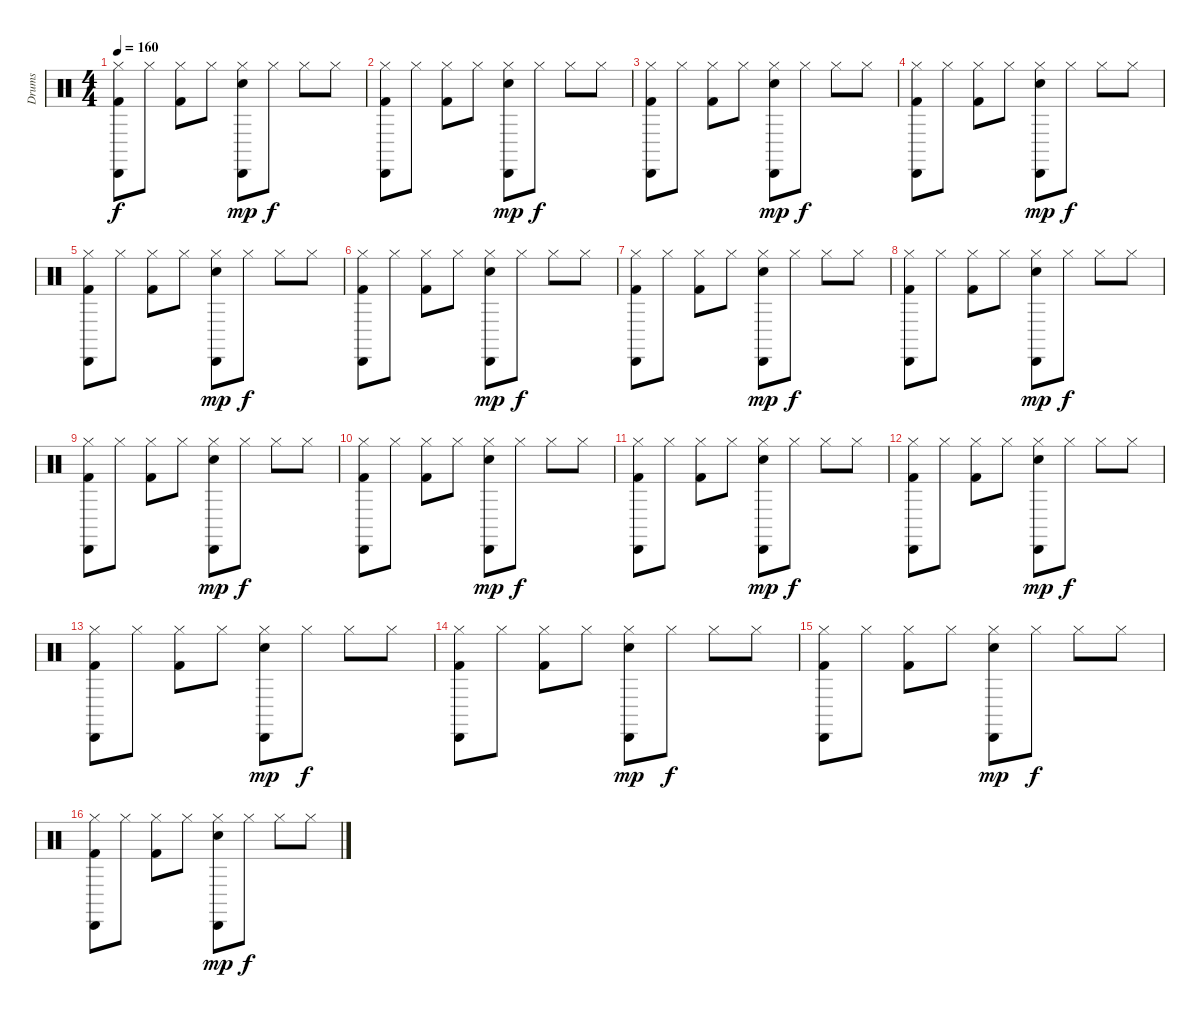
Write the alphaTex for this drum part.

\track ("Drums" "Drums") {instrument percussion}
\staff {score}
\articulation defaults
\ts (4 4)
\tempo 160
\clef neutral
\ks c
("Hi-Hat (closed)" "Cabasa (hit)" "Kick (hit) 2").8{dy f} "Hi-Hat (closed)".8 ("Hi-Hat (closed)" "Kick (hit) 2").8 "Hi-Hat (closed)".8 ("Hi-Hat (closed)" "Cabasa (hit)" "Electric Snare (hit)").8{dy mp} "Hi-Hat (closed)".8{dy f} "Hi-Hat (closed)".8 "Hi-Hat (closed)".8 |
("Hi-Hat (closed)" "Cabasa (hit)" "Kick (hit) 2").8 "Hi-Hat (closed)".8 ("Hi-Hat (closed)" "Kick (hit) 2").8 "Hi-Hat (closed)".8 ("Hi-Hat (closed)" "Cabasa (hit)" "Electric Snare (hit)").8{dy mp} "Hi-Hat (closed)".8{dy f} "Hi-Hat (closed)".8 "Hi-Hat (closed)".8 |
("Hi-Hat (closed)" "Cabasa (hit)" "Kick (hit) 2").8 "Hi-Hat (closed)".8 ("Hi-Hat (closed)" "Kick (hit) 2").8 "Hi-Hat (closed)".8 ("Hi-Hat (closed)" "Cabasa (hit)" "Electric Snare (hit)").8{dy mp} "Hi-Hat (closed)".8{dy f} "Hi-Hat (closed)".8 "Hi-Hat (closed)".8 |
("Hi-Hat (closed)" "Cabasa (hit)" "Kick (hit) 2").8 "Hi-Hat (closed)".8 ("Hi-Hat (closed)" "Kick (hit) 2").8 "Hi-Hat (closed)".8 ("Hi-Hat (closed)" "Cabasa (hit)" "Electric Snare (hit)").8{dy mp} "Hi-Hat (closed)".8{dy f} "Hi-Hat (closed)".8 "Hi-Hat (closed)".8 |
("Hi-Hat (closed)" "Cabasa (hit)" "Kick (hit) 2").8 "Hi-Hat (closed)".8 ("Hi-Hat (closed)" "Kick (hit) 2").8 "Hi-Hat (closed)".8 ("Hi-Hat (closed)" "Cabasa (hit)" "Electric Snare (hit)").8{dy mp} "Hi-Hat (closed)".8{dy f} "Hi-Hat (closed)".8 "Hi-Hat (closed)".8 |
("Hi-Hat (closed)" "Cabasa (hit)" "Kick (hit) 2").8 "Hi-Hat (closed)".8 ("Hi-Hat (closed)" "Kick (hit) 2").8 "Hi-Hat (closed)".8 ("Hi-Hat (closed)" "Cabasa (hit)" "Electric Snare (hit)").8{dy mp} "Hi-Hat (closed)".8{dy f} "Hi-Hat (closed)".8 "Hi-Hat (closed)".8 |
("Hi-Hat (closed)" "Cabasa (hit)" "Kick (hit) 2").8 "Hi-Hat (closed)".8 ("Hi-Hat (closed)" "Kick (hit) 2").8 "Hi-Hat (closed)".8 ("Hi-Hat (closed)" "Cabasa (hit)" "Electric Snare (hit)").8{dy mp} "Hi-Hat (closed)".8{dy f} "Hi-Hat (closed)".8 "Hi-Hat (closed)".8 |
("Hi-Hat (closed)" "Cabasa (hit)" "Kick (hit) 2").8 "Hi-Hat (closed)".8 ("Hi-Hat (closed)" "Kick (hit) 2").8 "Hi-Hat (closed)".8 ("Hi-Hat (closed)" "Cabasa (hit)" "Electric Snare (hit)").8{dy mp} "Hi-Hat (closed)".8{dy f} "Hi-Hat (closed)".8 "Hi-Hat (closed)".8 |
("Hi-Hat (closed)" "Cabasa (hit)" "Kick (hit) 2").8 "Hi-Hat (closed)".8 ("Hi-Hat (closed)" "Kick (hit) 2").8 "Hi-Hat (closed)".8 ("Hi-Hat (closed)" "Cabasa (hit)" "Electric Snare (hit)").8{dy mp} "Hi-Hat (closed)".8{dy f} "Hi-Hat (closed)".8 "Hi-Hat (closed)".8 |
("Hi-Hat (closed)" "Cabasa (hit)" "Kick (hit) 2").8 "Hi-Hat (closed)".8 ("Hi-Hat (closed)" "Kick (hit) 2").8 "Hi-Hat (closed)".8 ("Hi-Hat (closed)" "Cabasa (hit)" "Electric Snare (hit)").8{dy mp} "Hi-Hat (closed)".8{dy f} "Hi-Hat (closed)".8 "Hi-Hat (closed)".8 |
("Hi-Hat (closed)" "Cabasa (hit)" "Kick (hit) 2").8 "Hi-Hat (closed)".8 ("Hi-Hat (closed)" "Kick (hit) 2").8 "Hi-Hat (closed)".8 ("Hi-Hat (closed)" "Cabasa (hit)" "Electric Snare (hit)").8{dy mp} "Hi-Hat (closed)".8{dy f} "Hi-Hat (closed)".8 "Hi-Hat (closed)".8 |
("Hi-Hat (closed)" "Cabasa (hit)" "Kick (hit) 2").8 "Hi-Hat (closed)".8 ("Hi-Hat (closed)" "Kick (hit) 2").8 "Hi-Hat (closed)".8 ("Hi-Hat (closed)" "Cabasa (hit)" "Electric Snare (hit)").8{dy mp} "Hi-Hat (closed)".8{dy f} "Hi-Hat (closed)".8 "Hi-Hat (closed)".8 |
("Hi-Hat (closed)" "Cabasa (hit)" "Kick (hit) 2").8 "Hi-Hat (closed)".8 ("Hi-Hat (closed)" "Kick (hit) 2").8 "Hi-Hat (closed)".8 ("Hi-Hat (closed)" "Cabasa (hit)" "Electric Snare (hit)").8{dy mp} "Hi-Hat (closed)".8{dy f} "Hi-Hat (closed)".8 "Hi-Hat (closed)".8 |
("Hi-Hat (closed)" "Cabasa (hit)" "Kick (hit) 2").8 "Hi-Hat (closed)".8 ("Hi-Hat (closed)" "Kick (hit) 2").8 "Hi-Hat (closed)".8 ("Hi-Hat (closed)" "Cabasa (hit)" "Electric Snare (hit)").8{dy mp} "Hi-Hat (closed)".8{dy f} "Hi-Hat (closed)".8 "Hi-Hat (closed)".8 |
("Hi-Hat (closed)" "Cabasa (hit)" "Kick (hit) 2").8 "Hi-Hat (closed)".8 ("Hi-Hat (closed)" "Kick (hit) 2").8 "Hi-Hat (closed)".8 ("Hi-Hat (closed)" "Cabasa (hit)" "Electric Snare (hit)").8{dy mp} "Hi-Hat (closed)".8{dy f} "Hi-Hat (closed)".8 "Hi-Hat (closed)".8 |
("Hi-Hat (closed)" "Cabasa (hit)" "Kick (hit) 2").8 "Hi-Hat (closed)".8 ("Hi-Hat (closed)" "Kick (hit) 2").8 "Hi-Hat (closed)".8 ("Hi-Hat (closed)" "Cabasa (hit)" "Electric Snare (hit)").8{dy mp} "Hi-Hat (closed)".8{dy f} "Hi-Hat (closed)".8 "Hi-Hat (closed)".8
